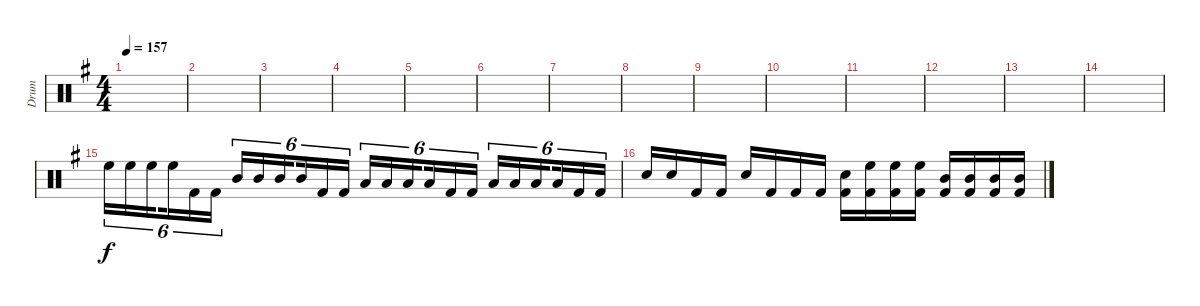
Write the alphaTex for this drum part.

\track ("Drum" "Drum") {instrument percussion}
\staff {score}
\articulation defaults
\ts (4 4)
\tempo 157
\clef neutral
\ks eminor
|
|
|
|
|
|
|
|
|
|
|
|
|
|
"High Floor Tom (hit)".16{tu (6 4)} "High Floor Tom (hit)".16{tu (6 4)} "High Floor Tom (hit)".16{tu (6 4) beam splitsecondary} "High Floor Tom (hit)".16{tu (6 4)} "Kick (hit) 2".16{tu (6 4)} "Kick (hit) 2".16{tu (6 4)} "Mid Tom (hit)".16{tu (6 4)} "Mid Tom (hit)".16{tu (6 4)} "Mid Tom (hit)".16{tu (6 4) beam splitsecondary} "Mid Tom (hit)".16{tu (6 4)} "Kick (hit) 2".16{tu (6 4)} "Kick (hit) 2".16{tu (6 4)} "Low Tom (hit)".16{tu (6 4)} "Low Tom (hit)".16{tu (6 4)} "Low Tom (hit)".16{tu (6 4) beam splitsecondary} "Low Tom (hit)".16{tu (6 4)} "Kick (hit) 2".16{tu (6 4)} "Kick (hit) 2".16{tu (6 4)} "Low Floor Tom (hit)".16{tu (6 4)} "Low Floor Tom (hit)".16{tu (6 4)} "Low Floor Tom (hit)".16{tu (6 4) beam splitsecondary} "Low Floor Tom (hit)".16{tu (6 4)} "Kick (hit) 2".16{tu (6 4)} "Kick (hit) 2".16{tu (6 4)} |
"Snare (hit) 2".16 "Snare (hit) 2".16 "Kick (hit) 2".16 "Kick (hit) 2".16 "Snare (hit) 2".16 "Kick (hit) 2".16 "Kick (hit) 2".16 "Kick (hit) 2".16 ("Kick (hit) 2" "Snare (hit) 2").16 ("Kick (hit) 2" "High Floor Tom (hit)").16 ("Kick (hit) 2" "High Floor Tom (hit)").16 ("Kick (hit) 2" "High Floor Tom (hit)").16 ("Kick (hit) 2" "Mid Tom (hit)").16 ("Kick (hit) 2" "Mid Tom (hit)").16 ("Kick (hit) 2" "Mid Tom (hit)").16 ("Kick (hit) 2" "Mid Tom (hit)").16
